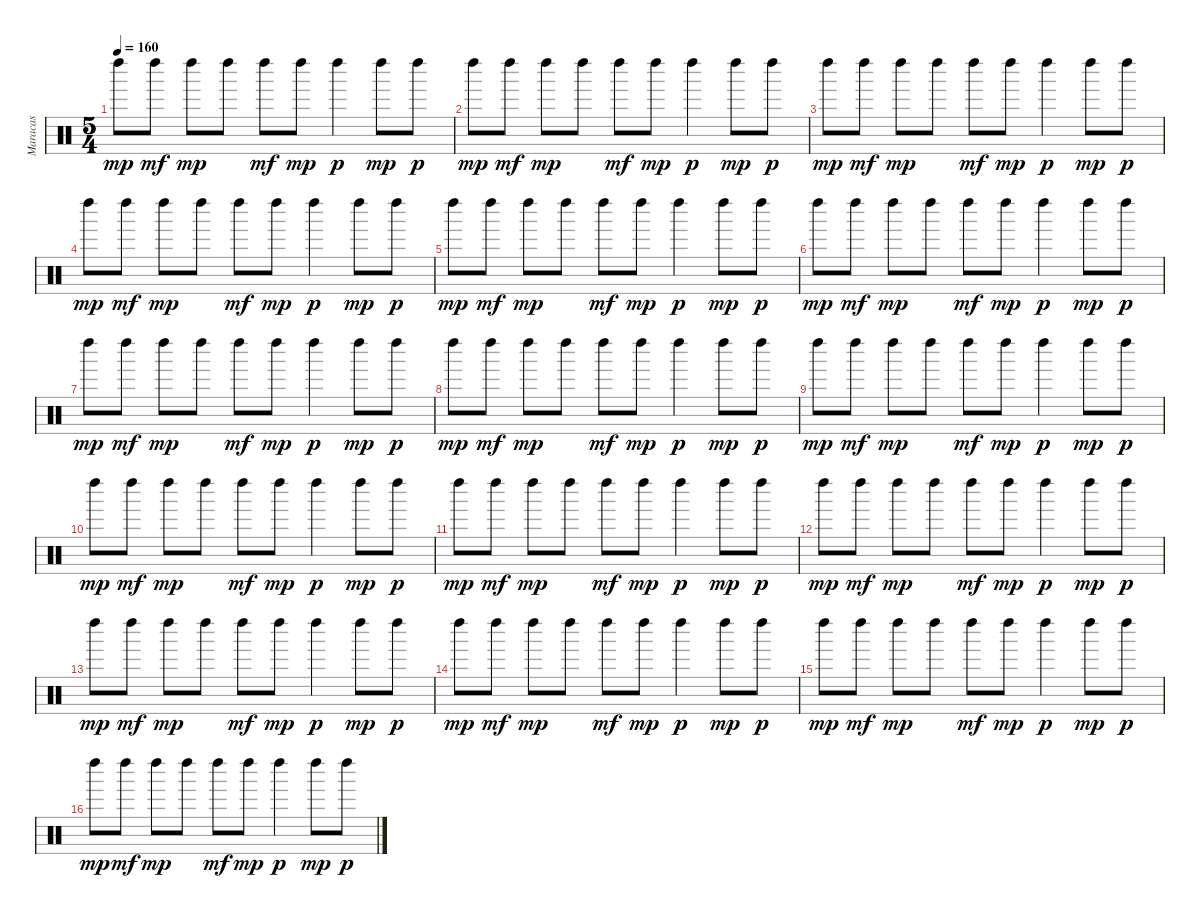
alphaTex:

\track ("Maracas" "Maracas") {instrument percussion}
\staff {score}
\articulation defaults
\ts (5 4)
\tempo 160
\clef neutral
\ks c "Left Maraca (hit)".8{dy mp} "Left Maraca (hit)".8{dy mf} "Left Maraca (hit)".8{dy mp} "Left Maraca (hit)".8 "Left Maraca (hit)".8{dy mf} "Left Maraca (hit)".8{dy mp} "Left Maraca (hit)".4{dy p} "Left Maraca (hit)".8{dy mp} "Left Maraca (hit)".8{dy p}
|
"Left Maraca (hit)".8{dy mp} "Left Maraca (hit)".8{dy mf} "Left Maraca (hit)".8{dy mp} "Left Maraca (hit)".8 "Left Maraca (hit)".8{dy mf} "Left Maraca (hit)".8{dy mp} "Left Maraca (hit)".4{dy p} "Left Maraca (hit)".8{dy mp} "Left Maraca (hit)".8{dy p} |
"Left Maraca (hit)".8{dy mp} "Left Maraca (hit)".8{dy mf} "Left Maraca (hit)".8{dy mp} "Left Maraca (hit)".8 "Left Maraca (hit)".8{dy mf} "Left Maraca (hit)".8{dy mp} "Left Maraca (hit)".4{dy p} "Left Maraca (hit)".8{dy mp} "Left Maraca (hit)".8{dy p} |
"Left Maraca (hit)".8{dy mp} "Left Maraca (hit)".8{dy mf} "Left Maraca (hit)".8{dy mp} "Left Maraca (hit)".8 "Left Maraca (hit)".8{dy mf} "Left Maraca (hit)".8{dy mp} "Left Maraca (hit)".4{dy p} "Left Maraca (hit)".8{dy mp} "Left Maraca (hit)".8{dy p} |
"Left Maraca (hit)".8{dy mp} "Left Maraca (hit)".8{dy mf} "Left Maraca (hit)".8{dy mp} "Left Maraca (hit)".8 "Left Maraca (hit)".8{dy mf} "Left Maraca (hit)".8{dy mp} "Left Maraca (hit)".4{dy p} "Left Maraca (hit)".8{dy mp} "Left Maraca (hit)".8{dy p} |
"Left Maraca (hit)".8{dy mp} "Left Maraca (hit)".8{dy mf} "Left Maraca (hit)".8{dy mp} "Left Maraca (hit)".8 "Left Maraca (hit)".8{dy mf} "Left Maraca (hit)".8{dy mp} "Left Maraca (hit)".4{dy p} "Left Maraca (hit)".8{dy mp} "Left Maraca (hit)".8{dy p} |
"Left Maraca (hit)".8{dy mp} "Left Maraca (hit)".8{dy mf} "Left Maraca (hit)".8{dy mp} "Left Maraca (hit)".8 "Left Maraca (hit)".8{dy mf} "Left Maraca (hit)".8{dy mp} "Left Maraca (hit)".4{dy p} "Left Maraca (hit)".8{dy mp} "Left Maraca (hit)".8{dy p} |
"Left Maraca (hit)".8{dy mp} "Left Maraca (hit)".8{dy mf} "Left Maraca (hit)".8{dy mp} "Left Maraca (hit)".8 "Left Maraca (hit)".8{dy mf} "Left Maraca (hit)".8{dy mp} "Left Maraca (hit)".4{dy p} "Left Maraca (hit)".8{dy mp} "Left Maraca (hit)".8{dy p} |
"Left Maraca (hit)".8{dy mp} "Left Maraca (hit)".8{dy mf} "Left Maraca (hit)".8{dy mp} "Left Maraca (hit)".8 "Left Maraca (hit)".8{dy mf} "Left Maraca (hit)".8{dy mp} "Left Maraca (hit)".4{dy p} "Left Maraca (hit)".8{dy mp} "Left Maraca (hit)".8{dy p} |
"Left Maraca (hit)".8{dy mp} "Left Maraca (hit)".8{dy mf} "Left Maraca (hit)".8{dy mp} "Left Maraca (hit)".8 "Left Maraca (hit)".8{dy mf} "Left Maraca (hit)".8{dy mp} "Left Maraca (hit)".4{dy p} "Left Maraca (hit)".8{dy mp} "Left Maraca (hit)".8{dy p} |
"Left Maraca (hit)".8{dy mp} "Left Maraca (hit)".8{dy mf} "Left Maraca (hit)".8{dy mp} "Left Maraca (hit)".8 "Left Maraca (hit)".8{dy mf} "Left Maraca (hit)".8{dy mp} "Left Maraca (hit)".4{dy p} "Left Maraca (hit)".8{dy mp} "Left Maraca (hit)".8{dy p} |
"Left Maraca (hit)".8{dy mp} "Left Maraca (hit)".8{dy mf} "Left Maraca (hit)".8{dy mp} "Left Maraca (hit)".8 "Left Maraca (hit)".8{dy mf} "Left Maraca (hit)".8{dy mp} "Left Maraca (hit)".4{dy p} "Left Maraca (hit)".8{dy mp} "Left Maraca (hit)".8{dy p} |
"Left Maraca (hit)".8{dy mp} "Left Maraca (hit)".8{dy mf} "Left Maraca (hit)".8{dy mp} "Left Maraca (hit)".8 "Left Maraca (hit)".8{dy mf} "Left Maraca (hit)".8{dy mp} "Left Maraca (hit)".4{dy p} "Left Maraca (hit)".8{dy mp} "Left Maraca (hit)".8{dy p} |
"Left Maraca (hit)".8{dy mp} "Left Maraca (hit)".8{dy mf} "Left Maraca (hit)".8{dy mp} "Left Maraca (hit)".8 "Left Maraca (hit)".8{dy mf} "Left Maraca (hit)".8{dy mp} "Left Maraca (hit)".4{dy p} "Left Maraca (hit)".8{dy mp} "Left Maraca (hit)".8{dy p} |
"Left Maraca (hit)".8{dy mp} "Left Maraca (hit)".8{dy mf} "Left Maraca (hit)".8{dy mp} "Left Maraca (hit)".8 "Left Maraca (hit)".8{dy mf} "Left Maraca (hit)".8{dy mp} "Left Maraca (hit)".4{dy p} "Left Maraca (hit)".8{dy mp} "Left Maraca (hit)".8{dy p} |
"Left Maraca (hit)".8{dy mp} "Left Maraca (hit)".8{dy mf} "Left Maraca (hit)".8{dy mp} "Left Maraca (hit)".8 "Left Maraca (hit)".8{dy mf} "Left Maraca (hit)".8{dy mp} "Left Maraca (hit)".4{dy p} "Left Maraca (hit)".8{dy mp} "Left Maraca (hit)".8{dy p}
